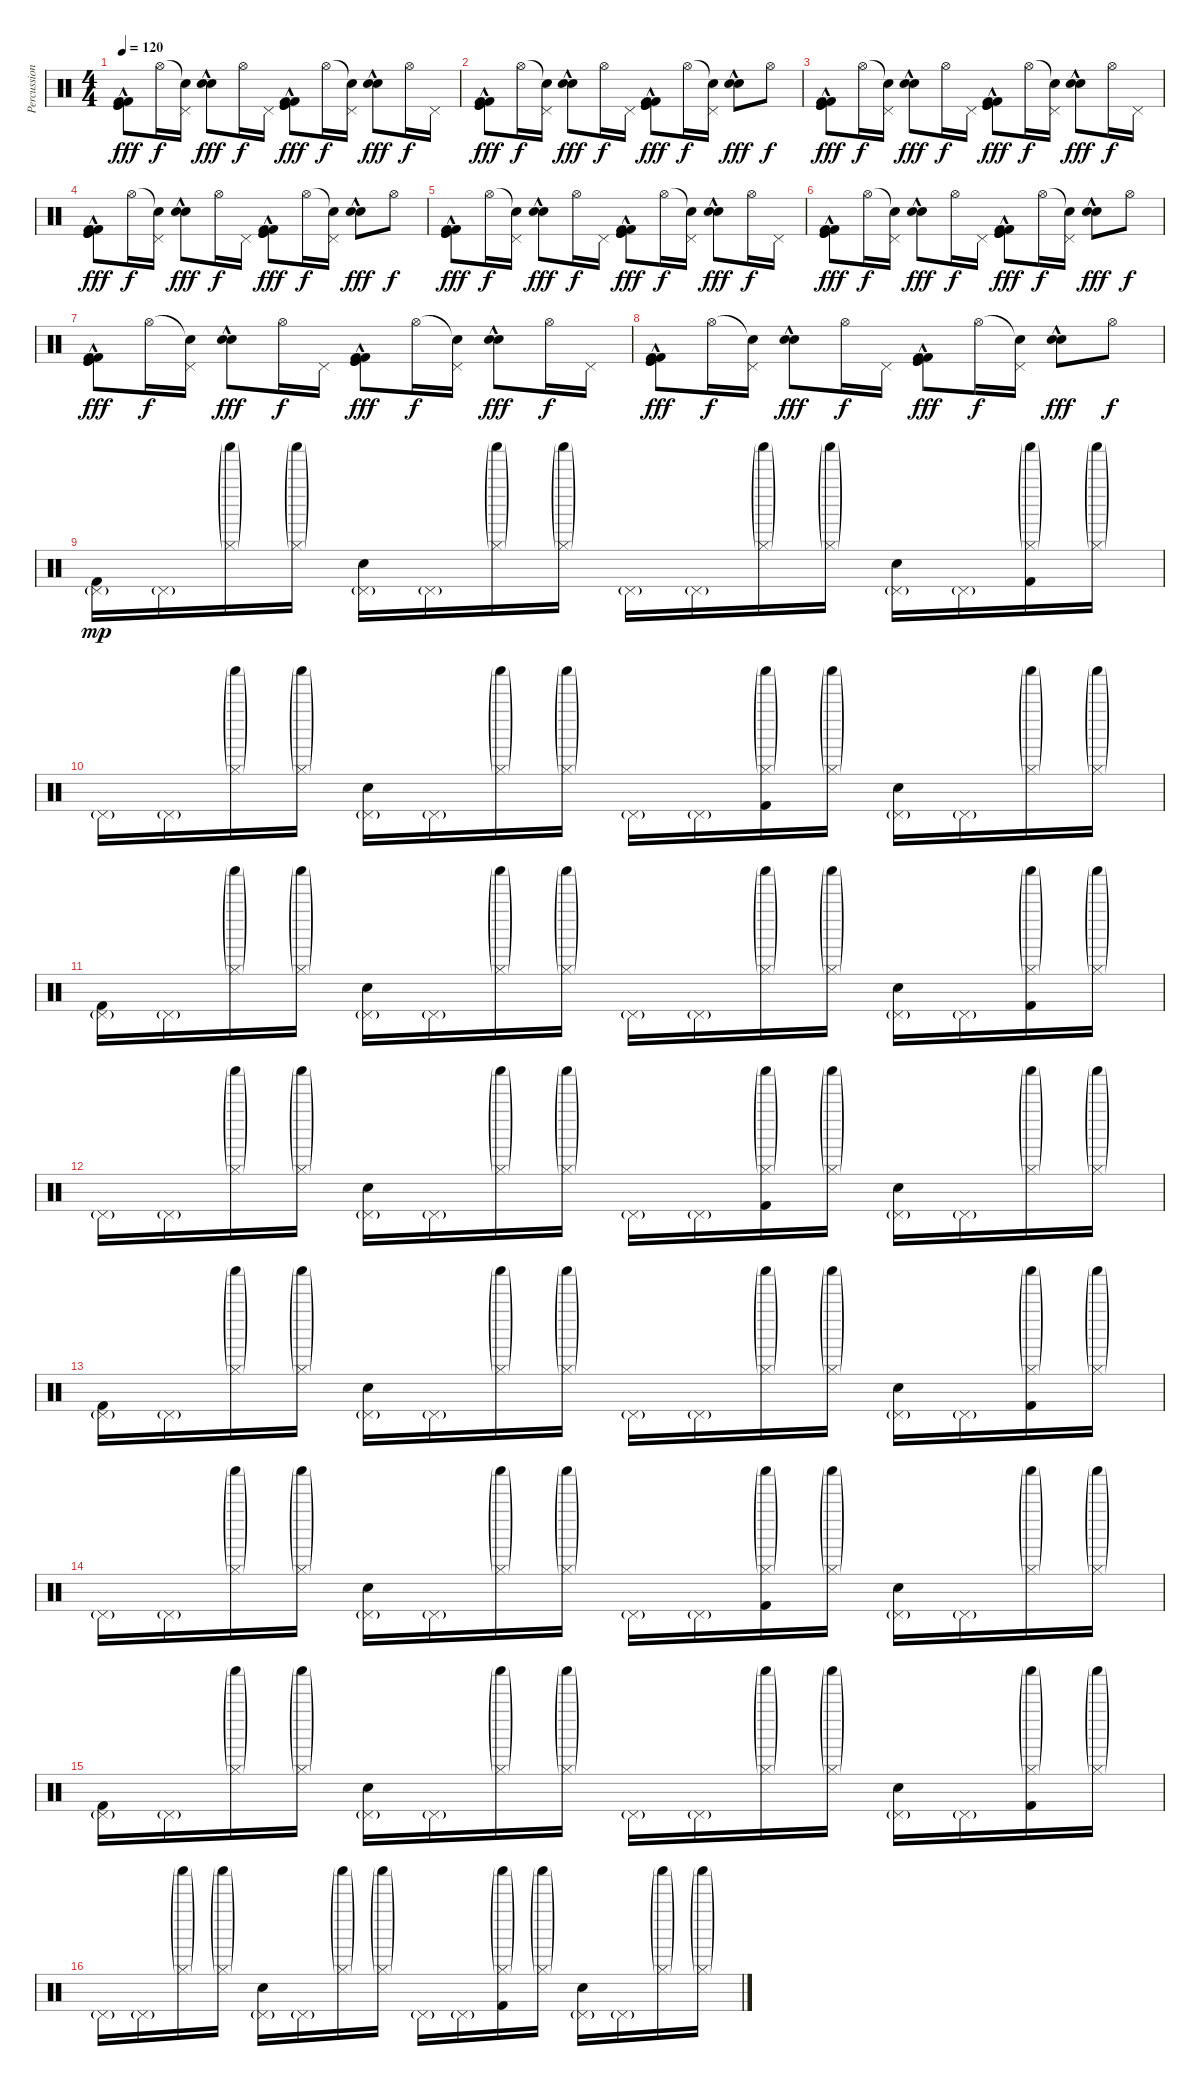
\track ("Percussion" "Percussion") {instrument percussion}
\staff {score}
\articulation defaults
\ts (4 4)
\tempo 120
\clef neutral
\ks c
("Kick (hit)" "Kick (hit) 2" "Kick (hit)"{hac} "Kick (hit) 2"{hac}).8{dy fff} "Hi-Hat (open)".16{dy f} ("Snare (hit)"{t} "Pedal Hi-Hat (hit)").16 ("Electric Snare (hit)"{hac} "Snare (hit) 2"{hac}).8{dy fff} "Hi-Hat (open)".16{dy f} "Pedal Hi-Hat (hit)".16 ("Kick (hit)" "Kick (hit) 2" "Kick (hit)"{hac} "Kick (hit) 2"{hac}).8{dy fff} "Hi-Hat (open)".16{dy f} ("Snare (hit)"{t} "Pedal Hi-Hat (hit)").16 ("Electric Snare (hit)"{hac} "Snare (hit) 2"{hac}).8{dy fff} "Hi-Hat (open)".16{dy f} "Pedal Hi-Hat (hit)".16 |
("Kick (hit)" "Kick (hit) 2" "Kick (hit)"{hac} "Kick (hit) 2"{hac}).8{dy fff} "Hi-Hat (open)".16{dy f} ("Snare (hit)"{t} "Pedal Hi-Hat (hit)").16 ("Electric Snare (hit)"{hac} "Snare (hit) 2"{hac}).8{dy fff} "Hi-Hat (open)".16{dy f} "Pedal Hi-Hat (hit)".16 ("Kick (hit)" "Kick (hit) 2" "Kick (hit)"{hac} "Kick (hit) 2"{hac}).8{dy fff} "Hi-Hat (open)".16{dy f} ("Snare (hit)"{t} "Pedal Hi-Hat (hit)").16 ("Electric Snare (hit)"{hac} "Snare (hit) 2"{hac}).8{dy fff} "Hi-Hat (open)".8{dy f} |
("Kick (hit)" "Kick (hit) 2" "Kick (hit)"{hac} "Kick (hit) 2"{hac}).8{dy fff} "Hi-Hat (open)".16{dy f} ("Snare (hit)"{t} "Pedal Hi-Hat (hit)").16 ("Electric Snare (hit)"{hac} "Snare (hit) 2"{hac}).8{dy fff} "Hi-Hat (open)".16{dy f} "Pedal Hi-Hat (hit)".16 ("Kick (hit)" "Kick (hit) 2" "Kick (hit)"{hac} "Kick (hit) 2"{hac}).8{dy fff} "Hi-Hat (open)".16{dy f} ("Snare (hit)"{t} "Pedal Hi-Hat (hit)").16 ("Electric Snare (hit)"{hac} "Snare (hit) 2"{hac}).8{dy fff} "Hi-Hat (open)".16{dy f} "Pedal Hi-Hat (hit)".16 |
("Kick (hit)" "Kick (hit) 2" "Kick (hit)"{hac} "Kick (hit) 2"{hac}).8{dy fff} "Hi-Hat (open)".16{dy f} ("Snare (hit)"{t} "Pedal Hi-Hat (hit)").16 ("Electric Snare (hit)"{hac} "Snare (hit) 2"{hac}).8{dy fff} "Hi-Hat (open)".16{dy f} "Pedal Hi-Hat (hit)".16 ("Kick (hit)" "Kick (hit) 2" "Kick (hit)"{hac} "Kick (hit) 2"{hac}).8{dy fff} "Hi-Hat (open)".16{dy f} ("Snare (hit)"{t} "Pedal Hi-Hat (hit)").16 ("Electric Snare (hit)"{hac} "Snare (hit) 2"{hac}).8{dy fff} "Hi-Hat (open)".8{dy f} |
("Kick (hit)" "Kick (hit) 2" "Kick (hit)"{hac} "Kick (hit) 2"{hac}).8{dy fff} "Hi-Hat (open)".16{dy f} ("Snare (hit)"{t} "Pedal Hi-Hat (hit)").16 ("Electric Snare (hit)"{hac} "Snare (hit) 2"{hac}).8{dy fff} "Hi-Hat (open)".16{dy f} "Pedal Hi-Hat (hit)".16 ("Kick (hit)" "Kick (hit) 2" "Kick (hit)"{hac} "Kick (hit) 2"{hac}).8{dy fff} "Hi-Hat (open)".16{dy f} ("Snare (hit)"{t} "Pedal Hi-Hat (hit)").16 ("Electric Snare (hit)"{hac} "Snare (hit) 2"{hac}).8{dy fff} "Hi-Hat (open)".16{dy f} "Pedal Hi-Hat (hit)".16 |
("Kick (hit)" "Kick (hit) 2" "Kick (hit)"{hac} "Kick (hit) 2"{hac}).8{dy fff} "Hi-Hat (open)".16{dy f} ("Snare (hit)"{t} "Pedal Hi-Hat (hit)").16 ("Electric Snare (hit)"{hac} "Snare (hit) 2"{hac}).8{dy fff} "Hi-Hat (open)".16{dy f} "Pedal Hi-Hat (hit)".16 ("Kick (hit)" "Kick (hit) 2" "Kick (hit)"{hac} "Kick (hit) 2"{hac}).8{dy fff} "Hi-Hat (open)".16{dy f} ("Snare (hit)"{t} "Pedal Hi-Hat (hit)").16 ("Electric Snare (hit)"{hac} "Snare (hit) 2"{hac}).8{dy fff} "Hi-Hat (open)".8{dy f} |
("Kick (hit)" "Kick (hit) 2" "Kick (hit)"{hac} "Kick (hit) 2"{hac}).8{dy fff} "Hi-Hat (open)".16{dy f} ("Snare (hit)"{t} "Pedal Hi-Hat (hit)").16 ("Electric Snare (hit)"{hac} "Snare (hit) 2"{hac}).8{dy fff} "Hi-Hat (open)".16{dy f} "Pedal Hi-Hat (hit)".16 ("Kick (hit)" "Kick (hit) 2" "Kick (hit)"{hac} "Kick (hit) 2"{hac}).8{dy fff} "Hi-Hat (open)".16{dy f} ("Snare (hit)"{t} "Pedal Hi-Hat (hit)").16 ("Electric Snare (hit)"{hac} "Snare (hit) 2"{hac}).8{dy fff} "Hi-Hat (open)".16{dy f} "Pedal Hi-Hat (hit)".16 |
("Kick (hit)" "Kick (hit) 2" "Kick (hit)"{hac} "Kick (hit) 2"{hac}).8{dy fff} "Hi-Hat (open)".16{dy f} ("Snare (hit)"{t} "Pedal Hi-Hat (hit)").16 ("Electric Snare (hit)"{hac} "Snare (hit) 2"{hac}).8{dy fff} "Hi-Hat (open)".16{dy f} "Pedal Hi-Hat (hit)".16 ("Kick (hit)" "Kick (hit) 2" "Kick (hit)"{hac} "Kick (hit) 2"{hac}).8{dy fff} "Hi-Hat (open)".16{dy f} ("Snare (hit)"{t} "Pedal Hi-Hat (hit)").16 ("Electric Snare (hit)"{hac} "Snare (hit) 2"{hac}).8{dy fff} "Hi-Hat (open)".8{dy f} |
("Pedal Hi-Hat (hit)"{g} "Kick (hit) 2").16{dy mp} "Pedal Hi-Hat (hit)"{g}.16 ("Hi-Hat (closed)"{g} "Shaker (hit)"{g}).16 ("Hi-Hat (closed)"{g} "Shaker (hit)"{g}).16 ("Pedal Hi-Hat (hit)"{g} "Snare (hit) 2").16 "Pedal Hi-Hat (hit)"{g}.16 ("Hi-Hat (closed)"{g} "Shaker (hit)"{g}).16 ("Hi-Hat (closed)"{g} "Shaker (hit)"{g}).16 "Pedal Hi-Hat (hit)"{g}.16 "Pedal Hi-Hat (hit)"{g}.16 ("Hi-Hat (closed)"{g} "Shaker (hit)"{g}).16 ("Hi-Hat (closed)"{g} "Shaker (hit)"{g}).16 ("Pedal Hi-Hat (hit)"{g} "Snare (hit) 2").16 "Pedal Hi-Hat (hit)"{g}.16 ("Hi-Hat (closed)"{g} "Shaker (hit)"{g} "Kick (hit) 2").16 ("Hi-Hat (closed)"{g} "Shaker (hit)"{g}).16 |
"Pedal Hi-Hat (hit)"{g}.16 "Pedal Hi-Hat (hit)"{g}.16 ("Hi-Hat (closed)"{g} "Shaker (hit)"{g}).16 ("Hi-Hat (closed)"{g} "Shaker (hit)"{g}).16 ("Pedal Hi-Hat (hit)"{g} "Snare (hit) 2").16 "Pedal Hi-Hat (hit)"{g}.16 ("Hi-Hat (closed)"{g} "Shaker (hit)"{g}).16 ("Hi-Hat (closed)"{g} "Shaker (hit)"{g}).16 "Pedal Hi-Hat (hit)"{g}.16 "Pedal Hi-Hat (hit)"{g}.16 ("Hi-Hat (closed)"{g} "Shaker (hit)"{g} "Kick (hit) 2").16 ("Hi-Hat (closed)"{g} "Shaker (hit)"{g}).16 ("Pedal Hi-Hat (hit)"{g} "Snare (hit) 2").16 "Pedal Hi-Hat (hit)"{g}.16 ("Hi-Hat (closed)"{g} "Shaker (hit)"{g}).16 ("Hi-Hat (closed)"{g} "Shaker (hit)"{g}).16 |
("Pedal Hi-Hat (hit)"{g} "Kick (hit) 2").16 "Pedal Hi-Hat (hit)"{g}.16 ("Hi-Hat (closed)"{g} "Shaker (hit)"{g}).16 ("Hi-Hat (closed)"{g} "Shaker (hit)"{g}).16 ("Pedal Hi-Hat (hit)"{g} "Snare (hit) 2").16 "Pedal Hi-Hat (hit)"{g}.16 ("Hi-Hat (closed)"{g} "Shaker (hit)"{g}).16 ("Hi-Hat (closed)"{g} "Shaker (hit)"{g}).16 "Pedal Hi-Hat (hit)"{g}.16 "Pedal Hi-Hat (hit)"{g}.16 ("Hi-Hat (closed)"{g} "Shaker (hit)"{g}).16 ("Hi-Hat (closed)"{g} "Shaker (hit)"{g}).16 ("Pedal Hi-Hat (hit)"{g} "Snare (hit) 2").16 "Pedal Hi-Hat (hit)"{g}.16 ("Hi-Hat (closed)"{g} "Shaker (hit)"{g} "Kick (hit) 2").16 ("Hi-Hat (closed)"{g} "Shaker (hit)"{g}).16 |
"Pedal Hi-Hat (hit)"{g}.16 "Pedal Hi-Hat (hit)"{g}.16 ("Hi-Hat (closed)"{g} "Shaker (hit)"{g}).16 ("Hi-Hat (closed)"{g} "Shaker (hit)"{g}).16 ("Pedal Hi-Hat (hit)"{g} "Snare (hit) 2").16 "Pedal Hi-Hat (hit)"{g}.16 ("Hi-Hat (closed)"{g} "Shaker (hit)"{g}).16 ("Hi-Hat (closed)"{g} "Shaker (hit)"{g}).16 "Pedal Hi-Hat (hit)"{g}.16 "Pedal Hi-Hat (hit)"{g}.16 ("Hi-Hat (closed)"{g} "Shaker (hit)"{g} "Kick (hit) 2").16 ("Hi-Hat (closed)"{g} "Shaker (hit)"{g}).16 ("Pedal Hi-Hat (hit)"{g} "Snare (hit) 2").16 "Pedal Hi-Hat (hit)"{g}.16 ("Hi-Hat (closed)"{g} "Shaker (hit)"{g}).16 ("Hi-Hat (closed)"{g} "Shaker (hit)"{g}).16 |
("Pedal Hi-Hat (hit)"{g} "Kick (hit) 2").16 "Pedal Hi-Hat (hit)"{g}.16 ("Hi-Hat (closed)"{g} "Shaker (hit)"{g}).16 ("Hi-Hat (closed)"{g} "Shaker (hit)"{g}).16 ("Pedal Hi-Hat (hit)"{g} "Snare (hit) 2").16 "Pedal Hi-Hat (hit)"{g}.16 ("Hi-Hat (closed)"{g} "Shaker (hit)"{g}).16 ("Hi-Hat (closed)"{g} "Shaker (hit)"{g}).16 "Pedal Hi-Hat (hit)"{g}.16 "Pedal Hi-Hat (hit)"{g}.16 ("Hi-Hat (closed)"{g} "Shaker (hit)"{g}).16 ("Hi-Hat (closed)"{g} "Shaker (hit)"{g}).16 ("Pedal Hi-Hat (hit)"{g} "Snare (hit) 2").16 "Pedal Hi-Hat (hit)"{g}.16 ("Hi-Hat (closed)"{g} "Shaker (hit)"{g} "Kick (hit) 2").16 ("Hi-Hat (closed)"{g} "Shaker (hit)"{g}).16 |
"Pedal Hi-Hat (hit)"{g}.16 "Pedal Hi-Hat (hit)"{g}.16 ("Hi-Hat (closed)"{g} "Shaker (hit)"{g}).16 ("Hi-Hat (closed)"{g} "Shaker (hit)"{g}).16 ("Pedal Hi-Hat (hit)"{g} "Snare (hit) 2").16 "Pedal Hi-Hat (hit)"{g}.16 ("Hi-Hat (closed)"{g} "Shaker (hit)"{g}).16 ("Hi-Hat (closed)"{g} "Shaker (hit)"{g}).16 "Pedal Hi-Hat (hit)"{g}.16 "Pedal Hi-Hat (hit)"{g}.16 ("Hi-Hat (closed)"{g} "Shaker (hit)"{g} "Kick (hit) 2").16 ("Hi-Hat (closed)"{g} "Shaker (hit)"{g}).16 ("Pedal Hi-Hat (hit)"{g} "Snare (hit) 2").16 "Pedal Hi-Hat (hit)"{g}.16 ("Hi-Hat (closed)"{g} "Shaker (hit)"{g}).16 ("Hi-Hat (closed)"{g} "Shaker (hit)"{g}).16 |
("Pedal Hi-Hat (hit)"{g} "Kick (hit) 2").16 "Pedal Hi-Hat (hit)"{g}.16 ("Hi-Hat (closed)"{g} "Shaker (hit)"{g}).16 ("Hi-Hat (closed)"{g} "Shaker (hit)"{g}).16 ("Pedal Hi-Hat (hit)"{g} "Snare (hit) 2").16 "Pedal Hi-Hat (hit)"{g}.16 ("Hi-Hat (closed)"{g} "Shaker (hit)"{g}).16 ("Hi-Hat (closed)"{g} "Shaker (hit)"{g}).16 "Pedal Hi-Hat (hit)"{g}.16 "Pedal Hi-Hat (hit)"{g}.16 ("Hi-Hat (closed)"{g} "Shaker (hit)"{g}).16 ("Hi-Hat (closed)"{g} "Shaker (hit)"{g}).16 ("Pedal Hi-Hat (hit)"{g} "Snare (hit) 2").16 "Pedal Hi-Hat (hit)"{g}.16 ("Hi-Hat (closed)"{g} "Shaker (hit)"{g} "Kick (hit) 2").16 ("Hi-Hat (closed)"{g} "Shaker (hit)"{g}).16 |
"Pedal Hi-Hat (hit)"{g}.16 "Pedal Hi-Hat (hit)"{g}.16 ("Hi-Hat (closed)"{g} "Shaker (hit)"{g}).16 ("Hi-Hat (closed)"{g} "Shaker (hit)"{g}).16 ("Pedal Hi-Hat (hit)"{g} "Snare (hit) 2").16 "Pedal Hi-Hat (hit)"{g}.16 ("Hi-Hat (closed)"{g} "Shaker (hit)"{g}).16 ("Hi-Hat (closed)"{g} "Shaker (hit)"{g}).16 "Pedal Hi-Hat (hit)"{g}.16 "Pedal Hi-Hat (hit)"{g}.16 ("Hi-Hat (closed)"{g} "Shaker (hit)"{g} "Kick (hit) 2").16 ("Hi-Hat (closed)"{g} "Shaker (hit)"{g}).16 ("Pedal Hi-Hat (hit)"{g} "Snare (hit) 2").16 "Pedal Hi-Hat (hit)"{g}.16 ("Hi-Hat (closed)"{g} "Shaker (hit)"{g}).16 ("Hi-Hat (closed)"{g} "Shaker (hit)"{g}).16
